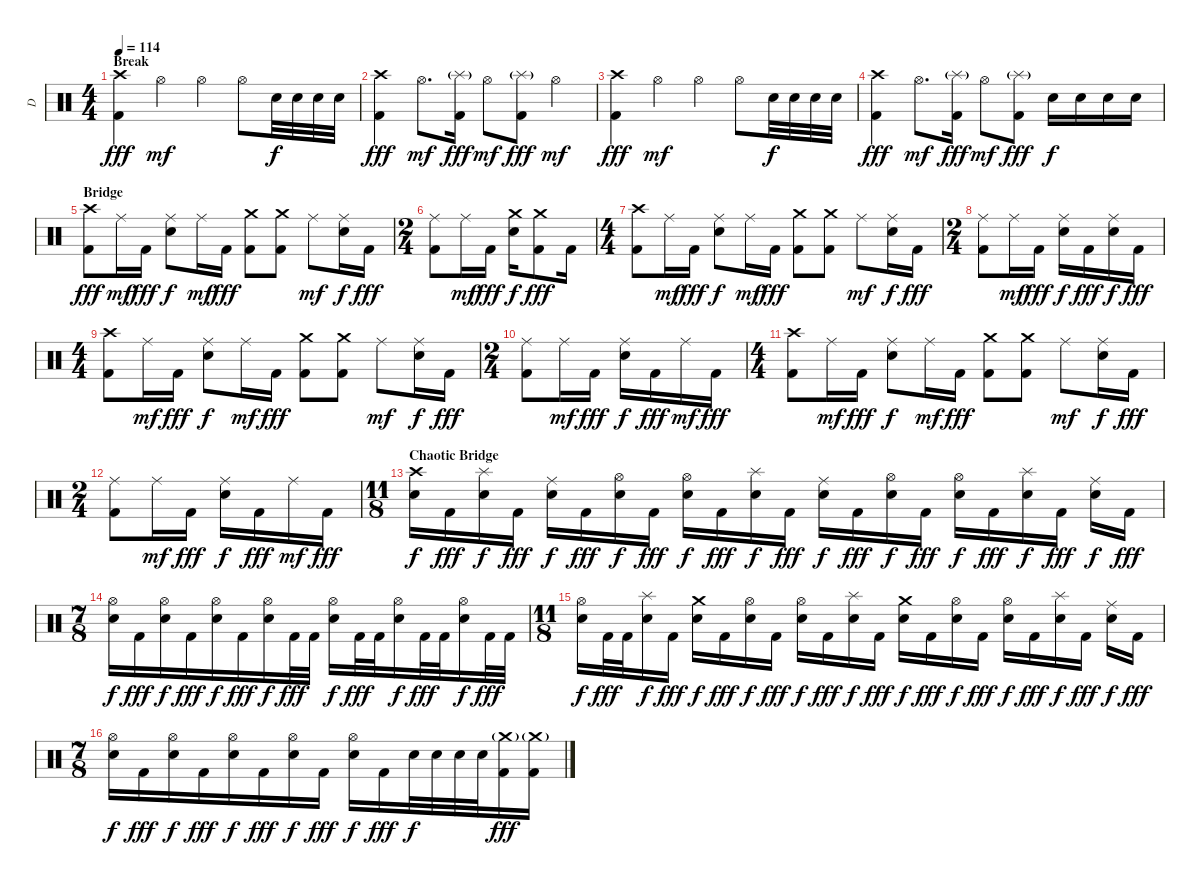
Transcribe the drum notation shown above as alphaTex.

\track ("D" "D") {instrument percussion}
\staff {score}
\articulation defaults
\ts (4 4)
\section ("" "Break")
\tempo 114
\clef neutral
\ks c
("Crash high (hit)" "Kick (hit) 2").4{dy fff} "Hi-Hat (open)".4{dy mf} "Hi-Hat (open)".4 "Hi-Hat (open)".8 "Electric Snare (hit)".32{dy f} "Electric Snare (hit)".32 "Electric Snare (hit)".32 "Electric Snare (hit)".32 |
("Crash high (hit)" "Kick (hit) 2").4{dy fff} "Hi-Hat (open)".8{d dy mf} ("Splash (hit)"{g} "Kick (hit) 2").16{dy fff} "Hi-Hat (open)".8{dy mf} ("Splash (hit)"{g} "Kick (hit) 2").8{dy fff} "Hi-Hat (open)".4{dy mf} |
("Crash high (hit)" "Kick (hit) 2").4{dy fff} "Hi-Hat (open)".4{dy mf} "Hi-Hat (open)".4 "Hi-Hat (open)".8 "Electric Snare (hit)".32{dy f} "Electric Snare (hit)".32 "Electric Snare (hit)".32 "Electric Snare (hit)".32 |
("Crash high (hit)" "Kick (hit) 2").4{dy fff} "Hi-Hat (open)".8{d dy mf} ("Splash (hit)"{g} "Kick (hit) 2").16{dy fff} "Hi-Hat (open)".8{dy mf} ("Splash (hit)"{g} "Kick (hit) 2").8{dy fff} "Electric Snare (hit)".16{dy f} "Electric Snare (hit)".16 "Electric Snare (hit)".16 "Electric Snare (hit)".16 |
\section ("" "Bridge")
("Crash high (hit)" "Kick (hit) 2").8{dy fff} "Ride (middle)".16{dy mf} "Kick (hit) 2".16{dy fff} ("Ride (middle)" "Electric Snare (hit)").8{dy f} "Ride (middle)".16{dy mf} "Kick (hit) 2".16{dy fff} ("Crash medium (hit)" "Kick (hit) 2").8 ("Crash medium (hit)" "Kick (hit) 2").8 "Ride (middle)".8{dy mf} ("Ride (middle)" "Electric Snare (hit)").16{dy f} "Kick (hit) 2".16{dy fff} |
\ts (2 4)
("Ride (middle)" "Kick (hit) 2").8 "Ride (middle)".16{dy mf} "Kick (hit) 2".16{dy fff} ("Crash medium (hit)" "Electric Snare (hit)").16{dy f} ("Crash medium (hit)" "Kick (hit) 2").8{dy fff} "Kick (hit) 2".16 |
\ts (4 4)
("Crash high (hit)" "Kick (hit) 2").8 "Ride (middle)".16{dy mf} "Kick (hit) 2".16{dy fff} ("Ride (middle)" "Electric Snare (hit)").8{dy f} "Ride (middle)".16{dy mf} "Kick (hit) 2".16{dy fff} ("Crash medium (hit)" "Kick (hit) 2").8 ("Crash medium (hit)" "Kick (hit) 2").8 "Ride (middle)".8{dy mf} ("Ride (middle)" "Electric Snare (hit)").16{dy f} "Kick (hit) 2".16{dy fff} |
\ts (2 4)
("Ride (middle)" "Kick (hit) 2").8 "Ride (middle)".16{dy mf} "Kick (hit) 2".16{dy fff} ("Ride (middle)" "Electric Snare (hit)").16{dy f} "Kick (hit) 2".16{dy fff} ("Ride (middle)" "Electric Snare (hit)").16{dy f} "Kick (hit) 2".16{dy fff} |
\ts (4 4)
("Crash high (hit)" "Kick (hit) 2").8 "Ride (middle)".16{dy mf} "Kick (hit) 2".16{dy fff} ("Ride (middle)" "Electric Snare (hit)").8{dy f} "Ride (middle)".16{dy mf} "Kick (hit) 2".16{dy fff} ("Crash medium (hit)" "Kick (hit) 2").8 ("Crash medium (hit)" "Kick (hit) 2").8 "Ride (middle)".8{dy mf} ("Ride (middle)" "Electric Snare (hit)").16{dy f} "Kick (hit) 2".16{dy fff} |
\ts (2 4)
("Ride (middle)" "Kick (hit) 2").8 "Ride (middle)".16{dy mf} "Kick (hit) 2".16{dy fff} ("Ride (middle)" "Electric Snare (hit)").16{dy f} "Kick (hit) 2".16{dy fff} "Ride (middle)".16{dy mf} "Kick (hit) 2".16{dy fff} |
\ts (4 4)
("Crash high (hit)" "Kick (hit) 2").8 "Ride (middle)".16{dy mf} "Kick (hit) 2".16{dy fff} ("Ride (middle)" "Electric Snare (hit)").8{dy f} "Ride (middle)".16{dy mf} "Kick (hit) 2".16{dy fff} ("Crash medium (hit)" "Kick (hit) 2").8 ("Crash medium (hit)" "Kick (hit) 2").8 "Ride (middle)".8{dy mf} ("Ride (middle)" "Electric Snare (hit)").16{dy f} "Kick (hit) 2".16{dy fff} |
\ts (2 4)
("Ride (middle)" "Kick (hit) 2").8 "Ride (middle)".16{dy mf} "Kick (hit) 2".16{dy fff} ("Ride (middle)" "Electric Snare (hit)").16{dy f} "Kick (hit) 2".16{dy fff} "Ride (middle)".16{dy mf} "Kick (hit) 2".16{dy fff} |
\ts (11 8)
\section ("" "Chaotic Bridge")
("Crash high (hit)" "Electric Snare (hit)").16{dy f} "Kick (hit) 2".16{dy fff} ("Splash (hit)" "Electric Snare (hit)").16{dy f} "Kick (hit) 2".16{dy fff} ("Ride (middle)" "Electric Snare (hit)").16{dy f} "Kick (hit) 2".16{dy fff} ("Hi-Hat (open)" "Electric Snare (hit)").16{dy f} "Kick (hit) 2".16{dy fff} ("Hi-Hat (open)" "Electric Snare (hit)").16{dy f} "Kick (hit) 2".16{dy fff} ("Splash (hit)" "Electric Snare (hit)").16{dy f} "Kick (hit) 2".16{dy fff} ("Ride (middle)" "Electric Snare (hit)").16{dy f} "Kick (hit) 2".16{dy fff} ("Hi-Hat (open)" "Electric Snare (hit)").16{dy f} "Kick (hit) 2".16{dy fff} ("Hi-Hat (open)" "Electric Snare (hit)").16{dy f} "Kick (hit) 2".16{dy fff} ("Splash (hit)" "Electric Snare (hit)").16{dy f} "Kick (hit) 2".16{dy fff} ("Ride (middle)" "Electric Snare (hit)").16{dy f} "Kick (hit) 2".16{dy fff} |
\ts (7 8)
("Hi-Hat (open)" "Electric Snare (hit)").16{dy f} "Kick (hit) 2".16{dy fff} ("Hi-Hat (open)" "Electric Snare (hit)").16{dy f} "Kick (hit) 2".16{dy fff} ("Hi-Hat (open)" "Electric Snare (hit)").16{dy f} "Kick (hit) 2".16{dy fff} ("Hi-Hat (open)" "Electric Snare (hit)").16{dy f} "Kick (hit) 2".32{dy fff} "Kick (hit) 2".32 ("Hi-Hat (open)" "Electric Snare (hit)").16{dy f} "Kick (hit) 2".32{dy fff} "Kick (hit) 2".32 ("Hi-Hat (open)" "Electric Snare (hit)").16{dy f} "Kick (hit) 2".32{dy fff} "Kick (hit) 2".32 ("Hi-Hat (open)" "Electric Snare (hit)").16{dy f} "Kick (hit) 2".32{dy fff} "Kick (hit) 2".32 |
\ts (11 8)
("Hi-Hat (open)" "Electric Snare (hit)").16{dy f} "Kick (hit) 2".32{dy fff} "Kick (hit) 2".32 ("Splash (hit)" "Electric Snare (hit)").16{dy f} "Kick (hit) 2".16{dy fff} ("Crash medium (hit)" "Electric Snare (hit)").16{dy f} "Kick (hit) 2".16{dy fff} ("Hi-Hat (open)" "Electric Snare (hit)").16{dy f} "Kick (hit) 2".16{dy fff} ("Hi-Hat (open)" "Electric Snare (hit)").16{dy f} "Kick (hit) 2".16{dy fff} ("Splash (hit)" "Electric Snare (hit)").16{dy f} "Kick (hit) 2".16{dy fff} ("Crash medium (hit)" "Electric Snare (hit)").16{dy f} "Kick (hit) 2".16{dy fff} ("Hi-Hat (open)" "Electric Snare (hit)").16{dy f} "Kick (hit) 2".16{dy fff} ("Hi-Hat (open)" "Electric Snare (hit)").16{dy f} "Kick (hit) 2".16{dy fff} ("Splash (hit)" "Electric Snare (hit)").16{dy f} "Kick (hit) 2".16{dy fff} ("Ride (middle)" "Electric Snare (hit)").16{dy f} "Kick (hit) 2".16{dy fff} |
\ts (7 8)
("Hi-Hat (open)" "Electric Snare (hit)").16{dy f} "Kick (hit) 2".16{dy fff} ("Hi-Hat (open)" "Electric Snare (hit)").16{dy f} "Kick (hit) 2".16{dy fff} ("Hi-Hat (open)" "Electric Snare (hit)").16{dy f} "Kick (hit) 2".16{dy fff} ("Hi-Hat (open)" "Electric Snare (hit)").16{dy f} "Kick (hit) 2".16{dy fff} ("Hi-Hat (open)" "Electric Snare (hit)").16{dy f} "Kick (hit) 2".16{dy fff} "Electric Snare (hit)".32{dy f} "Electric Snare (hit)".32 "Electric Snare (hit)".32 "Electric Snare (hit)".32 ("Crash medium (hit)"{g} "Kick (hit) 2").16{dy fff} ("Crash medium (hit)"{g} "Kick (hit) 2").16
